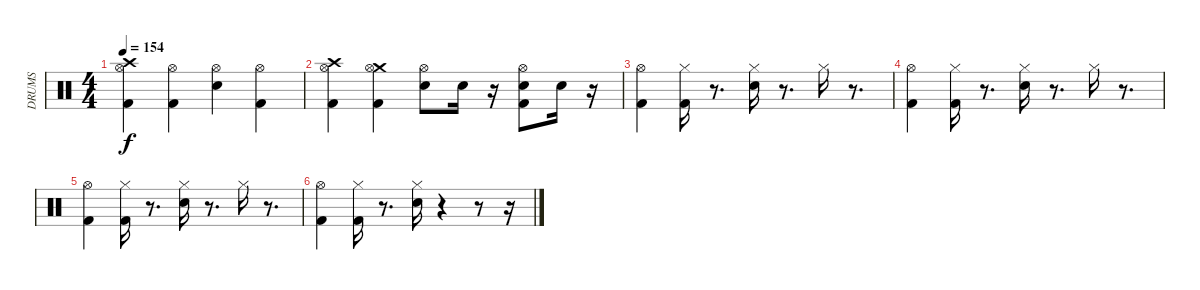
\track ("DRUMS" "DRUMS") {instrument percussion}
\staff {score}
\articulation defaults
\ts (4 4)
\tempo 154
\clef neutral
\ks c
("Crash high (hit)" "Hi-Hat (open)" "Kick (hit) 2").4{dy f} ("Hi-Hat (open)" "Kick (hit) 2").4 ("Hi-Hat (open)" "Snare (hit) 2").4 ("Hi-Hat (open)" "Kick (hit) 2").4 |
("Crash high (hit)" "Hi-Hat (open)" "Kick (hit) 2").4 ("Crash medium (hit)" "Hi-Hat (open)" "Kick (hit) 2").4 ("Hi-Hat (open)" "Snare (hit) 2").8 "Snare (hit) 2".16 r.16 ("Snare (hit) 2" "Hi-Hat (open)" "Kick (hit) 2").8 "Snare (hit) 2".16 r.16 |
("Hi-Hat (open)" "Kick (hit) 2").4 ("Hi-Hat (closed)" "Kick (hit) 2").16 r.8{d} ("Hi-Hat (closed)" "Snare (hit) 2").16 r.8{d} "Hi-Hat (closed)".16 r.8{d} |
("Hi-Hat (open)" "Kick (hit) 2").4 ("Hi-Hat (closed)" "Kick (hit) 2").16 r.8{d} ("Hi-Hat (closed)" "Snare (hit) 2").16 r.8{d} "Hi-Hat (closed)".16 r.8{d} |
("Hi-Hat (open)" "Kick (hit) 2").4 ("Hi-Hat (closed)" "Kick (hit) 2").16 r.8{d} ("Hi-Hat (closed)" "Snare (hit) 2").16 r.8{d} "Hi-Hat (closed)".16 r.8{d} |
("Hi-Hat (open)" "Kick (hit) 2").4 ("Hi-Hat (closed)" "Kick (hit) 2").16 r.8{d} ("Hi-Hat (closed)" "Snare (hit) 2").16 r.4 r.8 r.16
